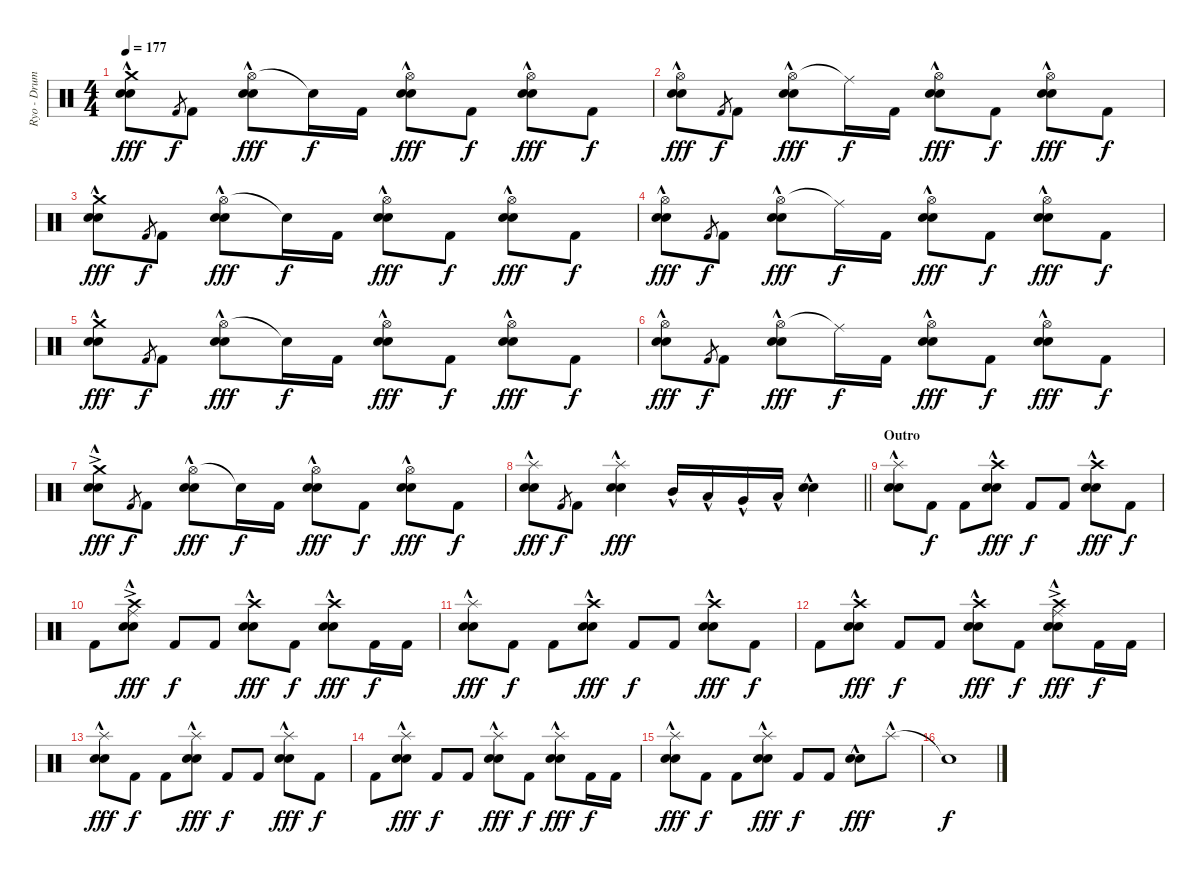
\track ("Ryo - Drums" "Ryo - Drum") {instrument percussion}
\staff {score}
\articulation defaults
\ts (4 4)
\section ("" "")
\tempo 177
\clef neutral
\ks c
("Crash medium (hit)" "Electric Snare (hit)"{hac} "Snare (hit) 2"{hac}).8{dy fff} "Kick (hit) 2".8{gr dy f} "Kick (hit) 2".8 ("Hi-Hat (open)" "Electric Snare (hit)"{hac} "Snare (hit) 2"{hac}).8{dy fff} "Snare (hit)"{t}.16{dy f} "Kick (hit) 2".16 ("Hi-Hat (open)" "Electric Snare (hit)"{hac} "Snare (hit) 2"{hac}).8{dy fff} "Kick (hit) 2".8{dy f} ("Hi-Hat (open)" "Electric Snare (hit)"{hac} "Snare (hit) 2"{hac}).8{dy fff} "Kick (hit) 2".8{dy f} |
("Hi-Hat (open)" "Electric Snare (hit)"{hac} "Snare (hit) 2"{hac}).8{dy fff} "Kick (hit) 2".8{gr dy f} "Kick (hit) 2".8 ("Hi-Hat (open)" "Electric Snare (hit)"{hac} "Snare (hit) 2"{hac}).8{dy fff} "Ride (middle)"{t}.16{dy f} "Kick (hit) 2".16 ("Hi-Hat (open)" "Electric Snare (hit)"{hac} "Snare (hit) 2"{hac}).8{dy fff} "Kick (hit) 2".8{dy f} ("Hi-Hat (open)" "Electric Snare (hit)"{hac} "Snare (hit) 2"{hac}).8{dy fff} "Kick (hit) 2".8{dy f} |
("Crash medium (hit)" "Electric Snare (hit)"{hac} "Snare (hit) 2"{hac}).8{dy fff} "Kick (hit) 2".8{gr dy f} "Kick (hit) 2".8 ("Hi-Hat (open)" "Electric Snare (hit)"{hac} "Snare (hit) 2"{hac}).8{dy fff} "Snare (hit)"{t}.16{dy f} "Kick (hit) 2".16 ("Hi-Hat (open)" "Electric Snare (hit)"{hac} "Snare (hit) 2"{hac}).8{dy fff} "Kick (hit) 2".8{dy f} ("Hi-Hat (open)" "Electric Snare (hit)"{hac} "Snare (hit) 2"{hac}).8{dy fff} "Kick (hit) 2".8{dy f} |
("Hi-Hat (open)" "Electric Snare (hit)"{hac} "Snare (hit) 2"{hac}).8{dy fff} "Kick (hit) 2".8{gr dy f} "Kick (hit) 2".8 ("Hi-Hat (open)" "Electric Snare (hit)"{hac} "Snare (hit) 2"{hac}).8{dy fff} "Ride (middle)"{t}.16{dy f} "Kick (hit) 2".16 ("Hi-Hat (open)" "Electric Snare (hit)"{hac} "Snare (hit) 2"{hac}).8{dy fff} "Kick (hit) 2".8{dy f} ("Hi-Hat (open)" "Electric Snare (hit)"{hac} "Snare (hit) 2"{hac}).8{dy fff} "Kick (hit) 2".8{dy f} |
("Crash medium (hit)" "Electric Snare (hit)"{hac} "Snare (hit) 2"{hac}).8{dy fff} "Kick (hit) 2".8{gr dy f} "Kick (hit) 2".8 ("Hi-Hat (open)" "Electric Snare (hit)"{hac} "Snare (hit) 2"{hac}).8{dy fff} "Snare (hit)"{t}.16{dy f} "Kick (hit) 2".16 ("Hi-Hat (open)" "Electric Snare (hit)"{hac} "Snare (hit) 2"{hac}).8{dy fff} "Kick (hit) 2".8{dy f} ("Hi-Hat (open)" "Electric Snare (hit)"{hac} "Snare (hit) 2"{hac}).8{dy fff} "Kick (hit) 2".8{dy f} |
("Hi-Hat (open)" "Electric Snare (hit)"{hac} "Snare (hit) 2"{hac}).8{dy fff} "Kick (hit) 2".8{gr dy f} "Kick (hit) 2".8 ("Hi-Hat (open)" "Electric Snare (hit)"{hac} "Snare (hit) 2"{hac}).8{dy fff} "Ride (middle)"{t}.16{dy f} "Kick (hit) 2".16 ("Hi-Hat (open)" "Electric Snare (hit)"{hac} "Snare (hit) 2"{hac}).8{dy fff} "Kick (hit) 2".8{dy f} ("Hi-Hat (open)" "Electric Snare (hit)"{hac} "Snare (hit) 2"{hac}).8{dy fff} "Kick (hit) 2".8{dy f} |
("Crash medium (hit)"{ac} "Electric Snare (hit)"{hac} "Snare (hit) 2"{hac}).8{dy fff} "Kick (hit) 2".8{gr dy f} "Kick (hit) 2".8 ("Hi-Hat (open)" "Electric Snare (hit)"{hac} "Snare (hit) 2"{hac}).8{dy fff} "Snare (hit)"{t}.16{dy f} "Kick (hit) 2".16 ("Hi-Hat (open)" "Electric Snare (hit)"{hac} "Snare (hit) 2"{hac}).8{dy fff} "Kick (hit) 2".8{dy f} ("Hi-Hat (open)" "Electric Snare (hit)"{hac} "Snare (hit) 2"{hac}).8{dy fff} "Kick (hit) 2".8{dy f} |
\barLineRight lightlight
("Splash (hit)"{hac} "Electric Snare (hit)"{hac} "Snare (hit) 2"{hac}).8{dy fff} "Kick (hit) 2".8{gr dy f} "Kick (hit) 2".8 ("Splash (hit)"{hac} "Electric Snare (hit)"{hac} "Snare (hit) 2"{hac}).4{dy fff} "Mid Tom (hit)"{hac}.16 "Low Tom (hit)"{hac}.16 "Very Low Tom (hit)"{hac}.16 "Low Floor Tom (hit)"{hac}.16 ("Electric Snare (hit)"{hac} "Snare (hit) 2"{hac}).4 |
\section ("" "Outro")
("Splash (hit)"{hac} "Electric Snare (hit)"{hac} "Snare (hit) 2"{hac}).8 "Kick (hit) 2".8{dy f} "Kick (hit) 2".8 ("Crash high (hit)" "Electric Snare (hit)"{hac} "Snare (hit) 2"{hac}).8{dy fff} "Kick (hit) 2".8{dy f} "Kick (hit) 2".8 ("Crash high (hit)" "Electric Snare (hit)"{hac} "Snare (hit) 2"{hac}).8{dy fff} "Kick (hit) 2".8{dy f} |
"Kick (hit) 2".8 ("Crash high (hit)" "Ride (middle)"{ac} "Electric Snare (hit)"{hac} "Snare (hit) 2"{hac}).8{dy fff} "Kick (hit) 2".8{dy f} "Kick (hit) 2".8 ("Crash high (hit)" "Electric Snare (hit)"{hac} "Snare (hit) 2"{hac}).8{dy fff} "Kick (hit) 2".8{dy f} ("Crash high (hit)" "Electric Snare (hit)"{hac} "Snare (hit) 2"{hac}).8{dy fff} "Kick (hit) 2".16{dy f} "Kick (hit) 2".16 |
("Splash (hit)"{hac} "Electric Snare (hit)"{hac} "Snare (hit) 2"{hac}).8{dy fff} "Kick (hit) 2".8{dy f} "Kick (hit) 2".8 ("Crash high (hit)" "Electric Snare (hit)"{hac} "Snare (hit) 2"{hac}).8{dy fff} "Kick (hit) 2".8{dy f} "Kick (hit) 2".8 ("Crash high (hit)" "Electric Snare (hit)"{hac} "Snare (hit) 2"{hac}).8{dy fff} "Kick (hit) 2".8{dy f} |
"Kick (hit) 2".8 ("Crash high (hit)" "Electric Snare (hit)"{hac} "Snare (hit) 2"{hac}).8{dy fff} "Kick (hit) 2".8{dy f} "Kick (hit) 2".8 ("Crash high (hit)" "Electric Snare (hit)"{hac} "Snare (hit) 2"{hac}).8{dy fff} "Kick (hit) 2".8{dy f} ("Crash high (hit)" "Ride (middle)"{ac} "Electric Snare (hit)"{hac} "Snare (hit) 2"{hac}).8{dy fff} "Kick (hit) 2".16{dy f} "Kick (hit) 2".16 |
("Splash (hit)"{hac} "Electric Snare (hit)"{hac} "Snare (hit) 2"{hac}).8{dy fff} "Kick (hit) 2".8{dy f} "Kick (hit) 2".8 ("Splash (hit)"{hac} "Electric Snare (hit)"{hac} "Snare (hit) 2"{hac}).8{dy fff} "Kick (hit) 2".8{dy f} "Kick (hit) 2".8 ("Splash (hit)"{hac} "Electric Snare (hit)"{hac} "Snare (hit) 2"{hac}).8{dy fff} "Kick (hit) 2".8{dy f} |
"Kick (hit) 2".8 ("Splash (hit)"{hac} "Electric Snare (hit)"{hac} "Snare (hit) 2"{hac}).8{dy fff} "Kick (hit) 2".8{dy f} "Kick (hit) 2".8 ("Splash (hit)"{hac} "Electric Snare (hit)"{hac} "Snare (hit) 2"{hac}).8{dy fff} "Kick (hit) 2".8{dy f} ("Splash (hit)"{hac} "Electric Snare (hit)"{hac} "Snare (hit) 2"{hac}).8{dy fff} "Kick (hit) 2".16{dy f} "Kick (hit) 2".16 |
("Splash (hit)"{hac} "Electric Snare (hit)"{hac} "Snare (hit) 2"{hac}).8{dy fff} "Kick (hit) 2".8{dy f} "Kick (hit) 2".8 ("Splash (hit)"{hac} "Electric Snare (hit)"{hac} "Snare (hit) 2"{hac}).8{dy fff} "Kick (hit) 2".8{dy f} "Kick (hit) 2".8 ("Electric Snare (hit)"{hac} "Snare (hit) 2"{hac}).8{dy fff} "Splash (hit)"{hac}.8 |
"Snare (hit)"{t}.1{dy f}
